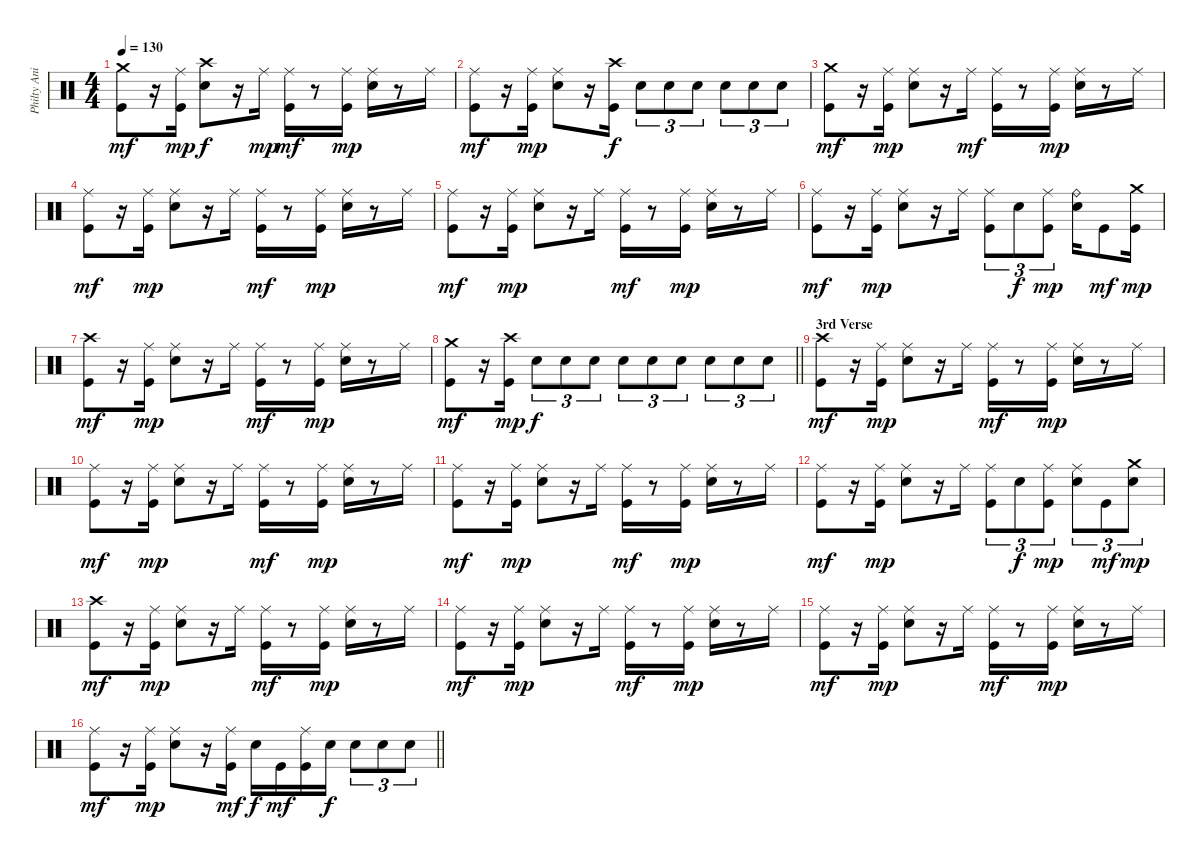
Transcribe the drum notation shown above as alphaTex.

\track ("Philty Animal Taylor" "Philty Ani") {instrument percussion}
\staff {score}
\articulation defaults
\ts (4 4)
\tempo 130
\clef neutral
\ks c
("Crash medium (hit)" "Kick (hit)").8{dy mf} r.16 ("Ride (middle)" "Kick (hit)").16{dy mp} ("Crash high (hit)" "Snare (hit) 2").8{dy f} r.16 "Ride (middle)".16{dy mp} ("Ride (middle)" "Kick (hit)").16{dy mf} r.8 ("Ride (middle)" "Kick (hit)").16{dy mp} ("Ride (middle)" "Snare (hit) 2").16 r.8 "Ride (middle)".16 |
("Ride (middle)" "Kick (hit)").8{dy mf} r.16 ("Ride (middle)" "Kick (hit)").16{dy mp} ("Ride (middle)" "Snare (hit) 2").8 r.16 ("Crash high (hit)" "Kick (hit)").16{dy f} "Snare (hit) 2".8{tu (3 2)} "Snare (hit) 2".8{tu (3 2)} "Snare (hit) 2".8{tu (3 2)} "Snare (hit) 2".8{tu (3 2)} "Snare (hit) 2".8{tu (3 2)} "Snare (hit) 2".8{tu (3 2)} |
("Crash medium (hit)" "Kick (hit)").8{dy mf} r.16 ("Ride (middle)" "Kick (hit)").16{dy mp} ("Ride (middle)" "Snare (hit) 2").8 r.16 "Ride (middle)".16{dy mf} ("Ride (middle)" "Kick (hit)").16 r.8 ("Ride (middle)" "Kick (hit)").16{dy mp} ("Ride (middle)" "Snare (hit) 2").16 r.8 "Ride (middle)".16 |
("Ride (middle)" "Kick (hit)").8{dy mf} r.16 ("Ride (middle)" "Kick (hit)").16{dy mp} ("Ride (middle)" "Snare (hit) 2").8 r.16 "Ride (middle)".16 ("Ride (middle)" "Kick (hit)").16{dy mf} r.8 ("Ride (middle)" "Kick (hit)").16{dy mp} ("Ride (middle)" "Snare (hit) 2").16 r.8 "Ride (middle)".16 |
("Ride (middle)" "Kick (hit)").8{dy mf} r.16 ("Ride (middle)" "Kick (hit)").16{dy mp} ("Ride (middle)" "Snare (hit) 2").8 r.16 "Ride (middle)".16 ("Ride (middle)" "Kick (hit)").16{dy mf} r.8 ("Ride (middle)" "Kick (hit)").16{dy mp} ("Ride (middle)" "Snare (hit) 2").16 r.8 "Ride (middle)".16 |
("Ride (middle)" "Kick (hit)").8{dy mf} r.16 ("Ride (middle)" "Kick (hit)").16{dy mp} ("Ride (middle)" "Snare (hit) 2").8 r.16 "Ride (middle)".16 ("Ride (middle)" "Kick (hit)").8{tu (3 2)} "Snare (hit) 2".8{tu (3 2) dy f} ("Ride (middle)" "Kick (hit)").8{tu (3 2) dy mp} ("Ride (bell)" "Snare (hit) 2").16 "Kick (hit)".8{dy mf} ("Crash medium (hit)" "Kick (hit)").16{dy mp} |
("Crash high (hit)" "Kick (hit)").8{dy mf} r.16 ("Ride (middle)" "Kick (hit)").16{dy mp} ("Ride (middle)" "Snare (hit) 2").8 r.16 "Ride (middle)".16 ("Ride (middle)" "Kick (hit)").16{dy mf} r.8 ("Ride (middle)" "Kick (hit)").16{dy mp} ("Ride (middle)" "Snare (hit) 2").16 r.8 "Ride (middle)".16 |
\barLineRight lightlight
("Crash medium (hit)" "Kick (hit)").8{dy mf} r.16 ("Crash high (hit)" "Kick (hit)").16{dy mp} "Snare (hit) 2".8{tu (3 2) dy f} "Snare (hit) 2".8{tu (3 2)} "Snare (hit) 2".8{tu (3 2)} "Snare (hit) 2".8{tu (3 2)} "Snare (hit) 2".8{tu (3 2)} "Snare (hit) 2".8{tu (3 2)} "Snare (hit) 2".8{tu (3 2)} "Snare (hit) 2".8{tu (3 2)} "Snare (hit) 2".8{tu (3 2)} |
\section ("" "3rd Verse")
("Crash high (hit)" "Kick (hit)").8{dy mf} r.16 ("Ride (middle)" "Kick (hit)").16{dy mp} ("Ride (middle)" "Snare (hit) 2").8 r.16 "Ride (middle)".16 ("Ride (middle)" "Kick (hit)").16{dy mf} r.8 ("Ride (middle)" "Kick (hit)").16{dy mp} ("Ride (middle)" "Snare (hit) 2").16 r.8 "Ride (middle)".16 |
("Ride (middle)" "Kick (hit)").8{dy mf} r.16 ("Ride (middle)" "Kick (hit)").16{dy mp} ("Ride (middle)" "Snare (hit) 2").8 r.16 "Ride (middle)".16 ("Ride (middle)" "Kick (hit)").16{dy mf} r.8 ("Ride (middle)" "Kick (hit)").16{dy mp} ("Ride (middle)" "Snare (hit) 2").16 r.8 "Ride (middle)".16 |
("Ride (middle)" "Kick (hit)").8{dy mf} r.16 ("Ride (middle)" "Kick (hit)").16{dy mp} ("Ride (middle)" "Snare (hit) 2").8 r.16 "Ride (middle)".16 ("Ride (middle)" "Kick (hit)").16{dy mf} r.8 ("Ride (middle)" "Kick (hit)").16{dy mp} ("Ride (middle)" "Snare (hit) 2").16 r.8 "Ride (middle)".16 |
("Ride (middle)" "Kick (hit)").8{dy mf} r.16 ("Ride (middle)" "Kick (hit)").16{dy mp} ("Ride (middle)" "Snare (hit) 2").8 r.16 "Ride (middle)".16 ("Ride (middle)" "Kick (hit)").8{tu (3 2)} "Snare (hit) 2".8{tu (3 2) dy f} ("Ride (middle)" "Kick (hit)").8{tu (3 2) dy mp} ("Ride (middle)" "Snare (hit) 2").8{tu (3 2)} "Kick (hit)".8{tu (3 2) dy mf} ("Crash medium (hit)" "Snare (hit) 2").8{tu (3 2) dy mp} |
("Crash high (hit)" "Kick (hit)").8{dy mf} r.16 ("Ride (middle)" "Kick (hit)").16{dy mp} ("Ride (middle)" "Snare (hit) 2").8 r.16 "Ride (middle)".16 ("Ride (middle)" "Kick (hit)").16{dy mf} r.8 ("Ride (middle)" "Kick (hit)").16{dy mp} ("Ride (middle)" "Snare (hit) 2").16 r.8 "Ride (middle)".16 |
("Ride (middle)" "Kick (hit)").8{dy mf} r.16 ("Ride (middle)" "Kick (hit)").16{dy mp} ("Ride (middle)" "Snare (hit) 2").8 r.16 "Ride (middle)".16 ("Ride (middle)" "Kick (hit)").16{dy mf} r.8 ("Ride (middle)" "Kick (hit)").16{dy mp} ("Ride (middle)" "Snare (hit) 2").16 r.8 "Ride (middle)".16 |
("Ride (middle)" "Kick (hit)").8{dy mf} r.16 ("Ride (middle)" "Kick (hit)").16{dy mp} ("Ride (middle)" "Snare (hit) 2").8 r.16 "Ride (middle)".16 ("Ride (middle)" "Kick (hit)").16{dy mf} r.8 ("Ride (middle)" "Kick (hit)").16{dy mp} ("Ride (middle)" "Snare (hit) 2").16 r.8 "Ride (middle)".16 |
\barLineRight lightlight
("Ride (middle)" "Kick (hit)").8{dy mf} r.16 ("Ride (middle)" "Kick (hit)").16{dy mp} ("Ride (middle)" "Snare (hit) 2").8 r.16 ("Ride (middle)" "Kick (hit)").16{dy mf} "Snare (hit) 2".16{dy f} "Kick (hit)".16{dy mf} ("Ride (middle)" "Kick (hit)").16 "Snare (hit) 2".16{dy f} "Snare (hit) 2".8{tu (3 2)} "Snare (hit) 2".8{tu (3 2)} "Snare (hit) 2".8{tu (3 2)}
